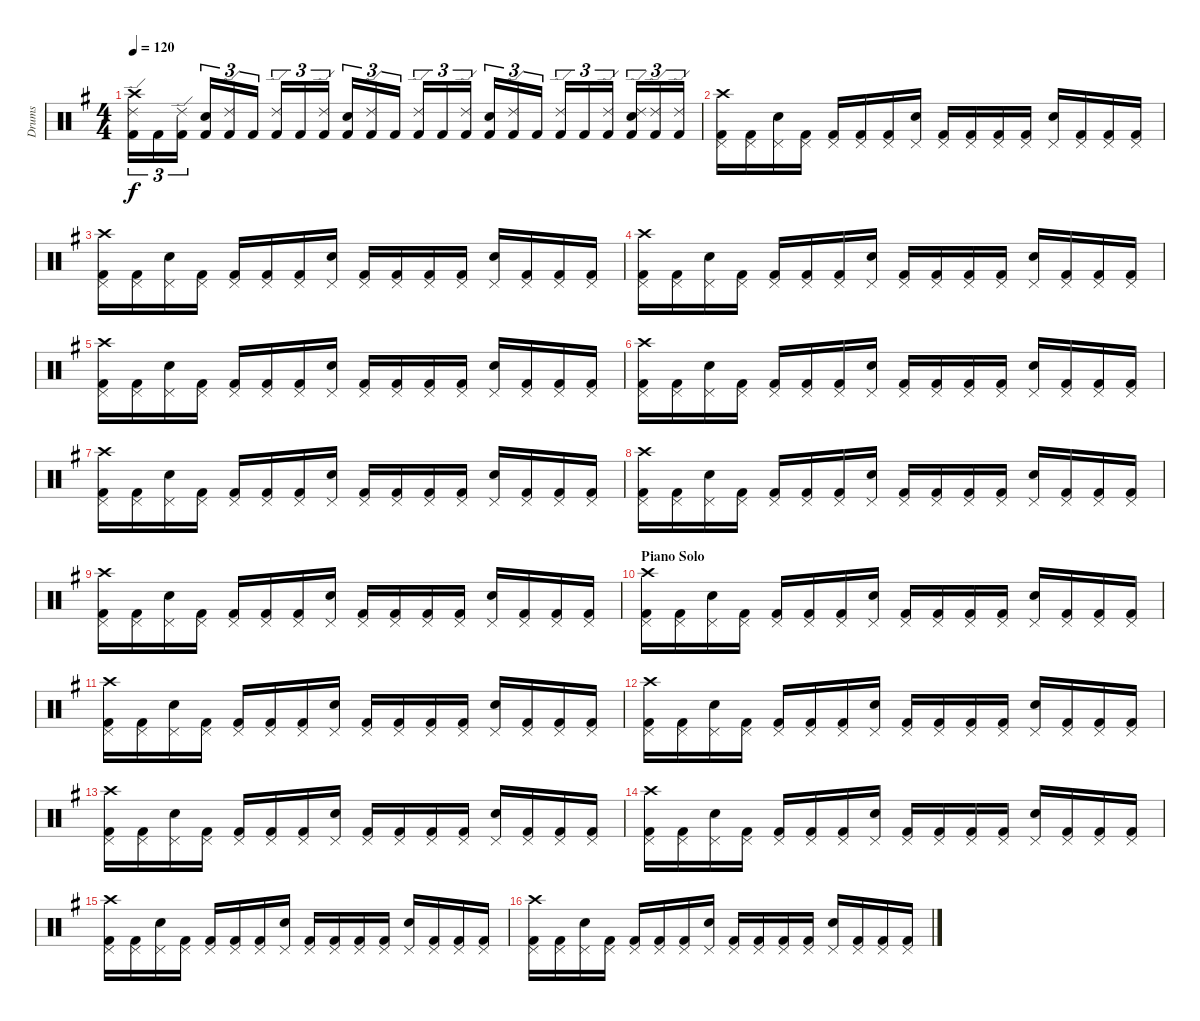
\track ("Drums" "Drums") {instrument percussion}
\staff {score}
\articulation defaults
\ts (4 4)
\tempo 120
\clef neutral
\ks eminor
("Crash high (hit)" "Ride (edge) 2" "Kick (hit) 2").16{tu (3 2) dy f} "Kick (hit) 2".16{tu (3 2)} ("Ride (edge) 2" "Kick (hit) 2").16{tu (3 2)} ("Electric Snare (hit)" "Kick (hit) 2").16{tu (3 2)} ("Ride (edge) 2" "Kick (hit) 2").16{tu (3 2)} "Kick (hit) 2".16{tu (3 2)} ("Ride (edge) 2" "Kick (hit) 2").16{tu (3 2)} "Kick (hit) 2".16{tu (3 2)} ("Ride (edge) 2" "Kick (hit) 2").16{tu (3 2)} ("Electric Snare (hit)" "Kick (hit) 2").16{tu (3 2)} ("Ride (edge) 2" "Kick (hit) 2").16{tu (3 2)} "Kick (hit) 2".16{tu (3 2)} ("Ride (edge) 2" "Kick (hit) 2").16{tu (3 2)} "Kick (hit) 2".16{tu (3 2)} ("Ride (edge) 2" "Kick (hit) 2").16{tu (3 2)} ("Electric Snare (hit)" "Kick (hit) 2").16{tu (3 2)} ("Ride (edge) 2" "Kick (hit) 2").16{tu (3 2)} "Kick (hit) 2".16{tu (3 2)} ("Ride (edge) 2" "Kick (hit) 2").16{tu (3 2)} "Kick (hit) 2".16{tu (3 2)} ("Ride (edge) 2" "Kick (hit) 2").16{tu (3 2)} ("Ride (edge) 2" "Electric Snare (hit)" "Kick (hit) 2").16{tu (3 2)} ("Ride (edge) 2" "Kick (hit) 2").16{tu (3 2)} ("Ride (edge) 2" "Kick (hit) 2").16{tu (3 2)} |
("Crash high (hit)" "Pedal Hi-Hat (hit)" "Kick (hit) 2").16 ("Pedal Hi-Hat (hit)" "Kick (hit) 2").16 ("Pedal Hi-Hat (hit)" "Electric Snare (hit)").16 ("Pedal Hi-Hat (hit)" "Kick (hit) 2").16 ("Pedal Hi-Hat (hit)" "Kick (hit) 2").16 ("Pedal Hi-Hat (hit)" "Kick (hit) 2").16 ("Pedal Hi-Hat (hit)" "Kick (hit) 2").16 ("Pedal Hi-Hat (hit)" "Electric Snare (hit)").16 ("Pedal Hi-Hat (hit)" "Kick (hit) 2").16 ("Pedal Hi-Hat (hit)" "Kick (hit) 2").16 ("Pedal Hi-Hat (hit)" "Kick (hit) 2").16 ("Pedal Hi-Hat (hit)" "Kick (hit) 2").16 ("Pedal Hi-Hat (hit)" "Electric Snare (hit)").16 ("Pedal Hi-Hat (hit)" "Kick (hit) 2").16 ("Pedal Hi-Hat (hit)" "Kick (hit) 2").16 ("Pedal Hi-Hat (hit)" "Kick (hit) 2").16 |
("Crash high (hit)" "Pedal Hi-Hat (hit)" "Kick (hit) 2").16 ("Pedal Hi-Hat (hit)" "Kick (hit) 2").16 ("Pedal Hi-Hat (hit)" "Electric Snare (hit)").16 ("Pedal Hi-Hat (hit)" "Kick (hit) 2").16 ("Pedal Hi-Hat (hit)" "Kick (hit) 2").16 ("Pedal Hi-Hat (hit)" "Kick (hit) 2").16 ("Pedal Hi-Hat (hit)" "Kick (hit) 2").16 ("Pedal Hi-Hat (hit)" "Electric Snare (hit)").16 ("Pedal Hi-Hat (hit)" "Kick (hit) 2").16 ("Pedal Hi-Hat (hit)" "Kick (hit) 2").16 ("Pedal Hi-Hat (hit)" "Kick (hit) 2").16 ("Pedal Hi-Hat (hit)" "Kick (hit) 2").16 ("Pedal Hi-Hat (hit)" "Electric Snare (hit)").16 ("Pedal Hi-Hat (hit)" "Kick (hit) 2").16 ("Pedal Hi-Hat (hit)" "Kick (hit) 2").16 ("Pedal Hi-Hat (hit)" "Kick (hit) 2").16 |
("Crash high (hit)" "Pedal Hi-Hat (hit)" "Kick (hit) 2").16 ("Pedal Hi-Hat (hit)" "Kick (hit) 2").16 ("Pedal Hi-Hat (hit)" "Electric Snare (hit)").16 ("Pedal Hi-Hat (hit)" "Kick (hit) 2").16 ("Pedal Hi-Hat (hit)" "Kick (hit) 2").16 ("Pedal Hi-Hat (hit)" "Kick (hit) 2").16 ("Pedal Hi-Hat (hit)" "Kick (hit) 2").16 ("Pedal Hi-Hat (hit)" "Electric Snare (hit)").16 ("Pedal Hi-Hat (hit)" "Kick (hit) 2").16 ("Pedal Hi-Hat (hit)" "Kick (hit) 2").16 ("Pedal Hi-Hat (hit)" "Kick (hit) 2").16 ("Pedal Hi-Hat (hit)" "Kick (hit) 2").16 ("Pedal Hi-Hat (hit)" "Electric Snare (hit)").16 ("Pedal Hi-Hat (hit)" "Kick (hit) 2").16 ("Pedal Hi-Hat (hit)" "Kick (hit) 2").16 ("Pedal Hi-Hat (hit)" "Kick (hit) 2").16 |
("Crash high (hit)" "Pedal Hi-Hat (hit)" "Kick (hit) 2").16 ("Pedal Hi-Hat (hit)" "Kick (hit) 2").16 ("Pedal Hi-Hat (hit)" "Electric Snare (hit)").16 ("Pedal Hi-Hat (hit)" "Kick (hit) 2").16 ("Pedal Hi-Hat (hit)" "Kick (hit) 2").16 ("Pedal Hi-Hat (hit)" "Kick (hit) 2").16 ("Pedal Hi-Hat (hit)" "Kick (hit) 2").16 ("Pedal Hi-Hat (hit)" "Electric Snare (hit)").16 ("Pedal Hi-Hat (hit)" "Kick (hit) 2").16 ("Pedal Hi-Hat (hit)" "Kick (hit) 2").16 ("Pedal Hi-Hat (hit)" "Kick (hit) 2").16 ("Pedal Hi-Hat (hit)" "Kick (hit) 2").16 ("Pedal Hi-Hat (hit)" "Electric Snare (hit)").16 ("Pedal Hi-Hat (hit)" "Kick (hit) 2").16 ("Pedal Hi-Hat (hit)" "Kick (hit) 2").16 ("Pedal Hi-Hat (hit)" "Kick (hit) 2").16 |
("Crash high (hit)" "Pedal Hi-Hat (hit)" "Kick (hit) 2").16 ("Pedal Hi-Hat (hit)" "Kick (hit) 2").16 ("Pedal Hi-Hat (hit)" "Electric Snare (hit)").16 ("Pedal Hi-Hat (hit)" "Kick (hit) 2").16 ("Pedal Hi-Hat (hit)" "Kick (hit) 2").16 ("Pedal Hi-Hat (hit)" "Kick (hit) 2").16 ("Pedal Hi-Hat (hit)" "Kick (hit) 2").16 ("Pedal Hi-Hat (hit)" "Electric Snare (hit)").16 ("Pedal Hi-Hat (hit)" "Kick (hit) 2").16 ("Pedal Hi-Hat (hit)" "Kick (hit) 2").16 ("Pedal Hi-Hat (hit)" "Kick (hit) 2").16 ("Pedal Hi-Hat (hit)" "Kick (hit) 2").16 ("Pedal Hi-Hat (hit)" "Electric Snare (hit)").16 ("Pedal Hi-Hat (hit)" "Kick (hit) 2").16 ("Pedal Hi-Hat (hit)" "Kick (hit) 2").16 ("Pedal Hi-Hat (hit)" "Kick (hit) 2").16 |
("Crash high (hit)" "Pedal Hi-Hat (hit)" "Kick (hit) 2").16 ("Pedal Hi-Hat (hit)" "Kick (hit) 2").16 ("Pedal Hi-Hat (hit)" "Electric Snare (hit)").16 ("Pedal Hi-Hat (hit)" "Kick (hit) 2").16 ("Pedal Hi-Hat (hit)" "Kick (hit) 2").16 ("Pedal Hi-Hat (hit)" "Kick (hit) 2").16 ("Pedal Hi-Hat (hit)" "Kick (hit) 2").16 ("Pedal Hi-Hat (hit)" "Electric Snare (hit)").16 ("Pedal Hi-Hat (hit)" "Kick (hit) 2").16 ("Pedal Hi-Hat (hit)" "Kick (hit) 2").16 ("Pedal Hi-Hat (hit)" "Kick (hit) 2").16 ("Pedal Hi-Hat (hit)" "Kick (hit) 2").16 ("Pedal Hi-Hat (hit)" "Electric Snare (hit)").16 ("Pedal Hi-Hat (hit)" "Kick (hit) 2").16 ("Pedal Hi-Hat (hit)" "Kick (hit) 2").16 ("Pedal Hi-Hat (hit)" "Kick (hit) 2").16 |
("Crash high (hit)" "Pedal Hi-Hat (hit)" "Kick (hit) 2").16 ("Pedal Hi-Hat (hit)" "Kick (hit) 2").16 ("Pedal Hi-Hat (hit)" "Electric Snare (hit)").16 ("Pedal Hi-Hat (hit)" "Kick (hit) 2").16 ("Pedal Hi-Hat (hit)" "Kick (hit) 2").16 ("Pedal Hi-Hat (hit)" "Kick (hit) 2").16 ("Pedal Hi-Hat (hit)" "Kick (hit) 2").16 ("Pedal Hi-Hat (hit)" "Electric Snare (hit)").16 ("Pedal Hi-Hat (hit)" "Kick (hit) 2").16 ("Pedal Hi-Hat (hit)" "Kick (hit) 2").16 ("Pedal Hi-Hat (hit)" "Kick (hit) 2").16 ("Pedal Hi-Hat (hit)" "Kick (hit) 2").16 ("Pedal Hi-Hat (hit)" "Electric Snare (hit)").16 ("Pedal Hi-Hat (hit)" "Kick (hit) 2").16 ("Pedal Hi-Hat (hit)" "Kick (hit) 2").16 ("Pedal Hi-Hat (hit)" "Kick (hit) 2").16 |
("Crash high (hit)" "Pedal Hi-Hat (hit)" "Kick (hit) 2").16 ("Pedal Hi-Hat (hit)" "Kick (hit) 2").16 ("Pedal Hi-Hat (hit)" "Electric Snare (hit)").16 ("Pedal Hi-Hat (hit)" "Kick (hit) 2").16 ("Pedal Hi-Hat (hit)" "Kick (hit) 2").16 ("Pedal Hi-Hat (hit)" "Kick (hit) 2").16 ("Pedal Hi-Hat (hit)" "Kick (hit) 2").16 ("Pedal Hi-Hat (hit)" "Electric Snare (hit)").16 ("Pedal Hi-Hat (hit)" "Kick (hit) 2").16 ("Pedal Hi-Hat (hit)" "Kick (hit) 2").16 ("Pedal Hi-Hat (hit)" "Kick (hit) 2").16 ("Pedal Hi-Hat (hit)" "Kick (hit) 2").16 ("Pedal Hi-Hat (hit)" "Electric Snare (hit)").16 ("Pedal Hi-Hat (hit)" "Kick (hit) 2").16 ("Pedal Hi-Hat (hit)" "Kick (hit) 2").16 ("Pedal Hi-Hat (hit)" "Kick (hit) 2").16 |
\section ("" "Piano Solo")
("Crash high (hit)" "Pedal Hi-Hat (hit)" "Kick (hit) 2").16 ("Pedal Hi-Hat (hit)" "Kick (hit) 2").16 ("Pedal Hi-Hat (hit)" "Electric Snare (hit)").16 ("Pedal Hi-Hat (hit)" "Kick (hit) 2").16 ("Pedal Hi-Hat (hit)" "Kick (hit) 2").16 ("Pedal Hi-Hat (hit)" "Kick (hit) 2").16 ("Pedal Hi-Hat (hit)" "Kick (hit) 2").16 ("Pedal Hi-Hat (hit)" "Electric Snare (hit)").16 ("Pedal Hi-Hat (hit)" "Kick (hit) 2").16 ("Pedal Hi-Hat (hit)" "Kick (hit) 2").16 ("Pedal Hi-Hat (hit)" "Kick (hit) 2").16 ("Pedal Hi-Hat (hit)" "Kick (hit) 2").16 ("Pedal Hi-Hat (hit)" "Electric Snare (hit)").16 ("Pedal Hi-Hat (hit)" "Kick (hit) 2").16 ("Pedal Hi-Hat (hit)" "Kick (hit) 2").16 ("Pedal Hi-Hat (hit)" "Kick (hit) 2").16 |
("Crash high (hit)" "Pedal Hi-Hat (hit)" "Kick (hit) 2").16 ("Pedal Hi-Hat (hit)" "Kick (hit) 2").16 ("Pedal Hi-Hat (hit)" "Electric Snare (hit)").16 ("Pedal Hi-Hat (hit)" "Kick (hit) 2").16 ("Pedal Hi-Hat (hit)" "Kick (hit) 2").16 ("Pedal Hi-Hat (hit)" "Kick (hit) 2").16 ("Pedal Hi-Hat (hit)" "Kick (hit) 2").16 ("Pedal Hi-Hat (hit)" "Electric Snare (hit)").16 ("Pedal Hi-Hat (hit)" "Kick (hit) 2").16 ("Pedal Hi-Hat (hit)" "Kick (hit) 2").16 ("Pedal Hi-Hat (hit)" "Kick (hit) 2").16 ("Pedal Hi-Hat (hit)" "Kick (hit) 2").16 ("Pedal Hi-Hat (hit)" "Electric Snare (hit)").16 ("Pedal Hi-Hat (hit)" "Kick (hit) 2").16 ("Pedal Hi-Hat (hit)" "Kick (hit) 2").16 ("Pedal Hi-Hat (hit)" "Kick (hit) 2").16 |
("Crash high (hit)" "Pedal Hi-Hat (hit)" "Kick (hit) 2").16 ("Pedal Hi-Hat (hit)" "Kick (hit) 2").16 ("Pedal Hi-Hat (hit)" "Electric Snare (hit)").16 ("Pedal Hi-Hat (hit)" "Kick (hit) 2").16 ("Pedal Hi-Hat (hit)" "Kick (hit) 2").16 ("Pedal Hi-Hat (hit)" "Kick (hit) 2").16 ("Pedal Hi-Hat (hit)" "Kick (hit) 2").16 ("Pedal Hi-Hat (hit)" "Electric Snare (hit)").16 ("Pedal Hi-Hat (hit)" "Kick (hit) 2").16 ("Pedal Hi-Hat (hit)" "Kick (hit) 2").16 ("Pedal Hi-Hat (hit)" "Kick (hit) 2").16 ("Pedal Hi-Hat (hit)" "Kick (hit) 2").16 ("Pedal Hi-Hat (hit)" "Electric Snare (hit)").16 ("Pedal Hi-Hat (hit)" "Kick (hit) 2").16 ("Pedal Hi-Hat (hit)" "Kick (hit) 2").16 ("Pedal Hi-Hat (hit)" "Kick (hit) 2").16 |
("Crash high (hit)" "Pedal Hi-Hat (hit)" "Kick (hit) 2").16 ("Pedal Hi-Hat (hit)" "Kick (hit) 2").16 ("Pedal Hi-Hat (hit)" "Electric Snare (hit)").16 ("Pedal Hi-Hat (hit)" "Kick (hit) 2").16 ("Pedal Hi-Hat (hit)" "Kick (hit) 2").16 ("Pedal Hi-Hat (hit)" "Kick (hit) 2").16 ("Pedal Hi-Hat (hit)" "Kick (hit) 2").16 ("Pedal Hi-Hat (hit)" "Electric Snare (hit)").16 ("Pedal Hi-Hat (hit)" "Kick (hit) 2").16 ("Pedal Hi-Hat (hit)" "Kick (hit) 2").16 ("Pedal Hi-Hat (hit)" "Kick (hit) 2").16 ("Pedal Hi-Hat (hit)" "Kick (hit) 2").16 ("Pedal Hi-Hat (hit)" "Electric Snare (hit)").16 ("Pedal Hi-Hat (hit)" "Kick (hit) 2").16 ("Pedal Hi-Hat (hit)" "Kick (hit) 2").16 ("Pedal Hi-Hat (hit)" "Kick (hit) 2").16 |
("Crash high (hit)" "Pedal Hi-Hat (hit)" "Kick (hit) 2").16 ("Pedal Hi-Hat (hit)" "Kick (hit) 2").16 ("Pedal Hi-Hat (hit)" "Electric Snare (hit)").16 ("Pedal Hi-Hat (hit)" "Kick (hit) 2").16 ("Pedal Hi-Hat (hit)" "Kick (hit) 2").16 ("Pedal Hi-Hat (hit)" "Kick (hit) 2").16 ("Pedal Hi-Hat (hit)" "Kick (hit) 2").16 ("Pedal Hi-Hat (hit)" "Electric Snare (hit)").16 ("Pedal Hi-Hat (hit)" "Kick (hit) 2").16 ("Pedal Hi-Hat (hit)" "Kick (hit) 2").16 ("Pedal Hi-Hat (hit)" "Kick (hit) 2").16 ("Pedal Hi-Hat (hit)" "Kick (hit) 2").16 ("Pedal Hi-Hat (hit)" "Electric Snare (hit)").16 ("Pedal Hi-Hat (hit)" "Kick (hit) 2").16 ("Pedal Hi-Hat (hit)" "Kick (hit) 2").16 ("Pedal Hi-Hat (hit)" "Kick (hit) 2").16 |
("Crash high (hit)" "Pedal Hi-Hat (hit)" "Kick (hit) 2").16 ("Pedal Hi-Hat (hit)" "Kick (hit) 2").16 ("Pedal Hi-Hat (hit)" "Electric Snare (hit)").16 ("Pedal Hi-Hat (hit)" "Kick (hit) 2").16 ("Pedal Hi-Hat (hit)" "Kick (hit) 2").16 ("Pedal Hi-Hat (hit)" "Kick (hit) 2").16 ("Pedal Hi-Hat (hit)" "Kick (hit) 2").16 ("Pedal Hi-Hat (hit)" "Electric Snare (hit)").16 ("Pedal Hi-Hat (hit)" "Kick (hit) 2").16 ("Pedal Hi-Hat (hit)" "Kick (hit) 2").16 ("Pedal Hi-Hat (hit)" "Kick (hit) 2").16 ("Pedal Hi-Hat (hit)" "Kick (hit) 2").16 ("Pedal Hi-Hat (hit)" "Electric Snare (hit)").16 ("Pedal Hi-Hat (hit)" "Kick (hit) 2").16 ("Pedal Hi-Hat (hit)" "Kick (hit) 2").16 ("Pedal Hi-Hat (hit)" "Kick (hit) 2").16 |
("Crash high (hit)" "Pedal Hi-Hat (hit)" "Kick (hit) 2").16 ("Pedal Hi-Hat (hit)" "Kick (hit) 2").16 ("Pedal Hi-Hat (hit)" "Electric Snare (hit)").16 ("Pedal Hi-Hat (hit)" "Kick (hit) 2").16 ("Pedal Hi-Hat (hit)" "Kick (hit) 2").16 ("Pedal Hi-Hat (hit)" "Kick (hit) 2").16 ("Pedal Hi-Hat (hit)" "Kick (hit) 2").16 ("Pedal Hi-Hat (hit)" "Electric Snare (hit)").16 ("Pedal Hi-Hat (hit)" "Kick (hit) 2").16 ("Pedal Hi-Hat (hit)" "Kick (hit) 2").16 ("Pedal Hi-Hat (hit)" "Kick (hit) 2").16 ("Pedal Hi-Hat (hit)" "Kick (hit) 2").16 ("Pedal Hi-Hat (hit)" "Electric Snare (hit)").16 ("Pedal Hi-Hat (hit)" "Kick (hit) 2").16 ("Pedal Hi-Hat (hit)" "Kick (hit) 2").16 ("Pedal Hi-Hat (hit)" "Kick (hit) 2").16
